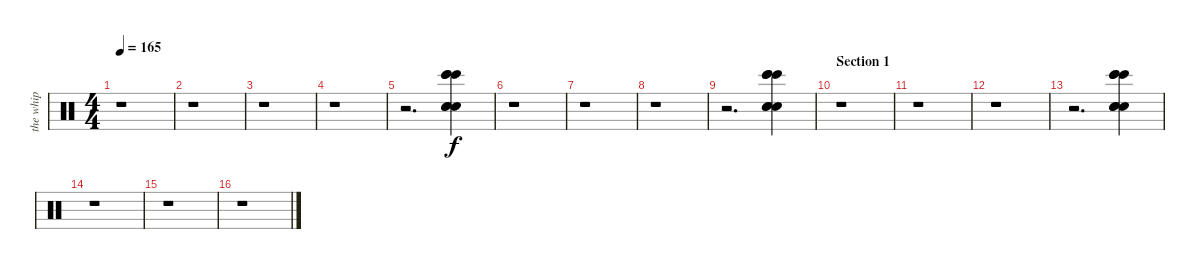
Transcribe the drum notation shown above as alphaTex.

\track ("the whip " "the whip ") {instrument percussion}
\staff {score}
\articulation defaults
\ts (4 4)
\tempo 165
\clef neutral
\ks c
r.1{dy f} |
r.1 |
r.1 |
r.1 |
r.2{d} ("Hand Clap (hit)" "Hand Clap (hit)" "Hand Clap (hit)" "Bongo High (hit)" "Bongo High (hit)" "Bongo High (hit)").4 |
r.1 |
r.1 |
r.1 |
r.2{d} ("Hand Clap (hit)" "Hand Clap (hit)" "Hand Clap (hit)" "Bongo High (hit)" "Bongo High (hit)" "Bongo High (hit)").4 |
\section ("" "Section 1")
r.1 |
r.1 |
r.1 |
r.2{d} ("Hand Clap (hit)" "Hand Clap (hit)" "Hand Clap (hit)" "Bongo High (hit)" "Bongo High (hit)" "Bongo High (hit)").4 |
r.1 |
r.1 |
r.1
